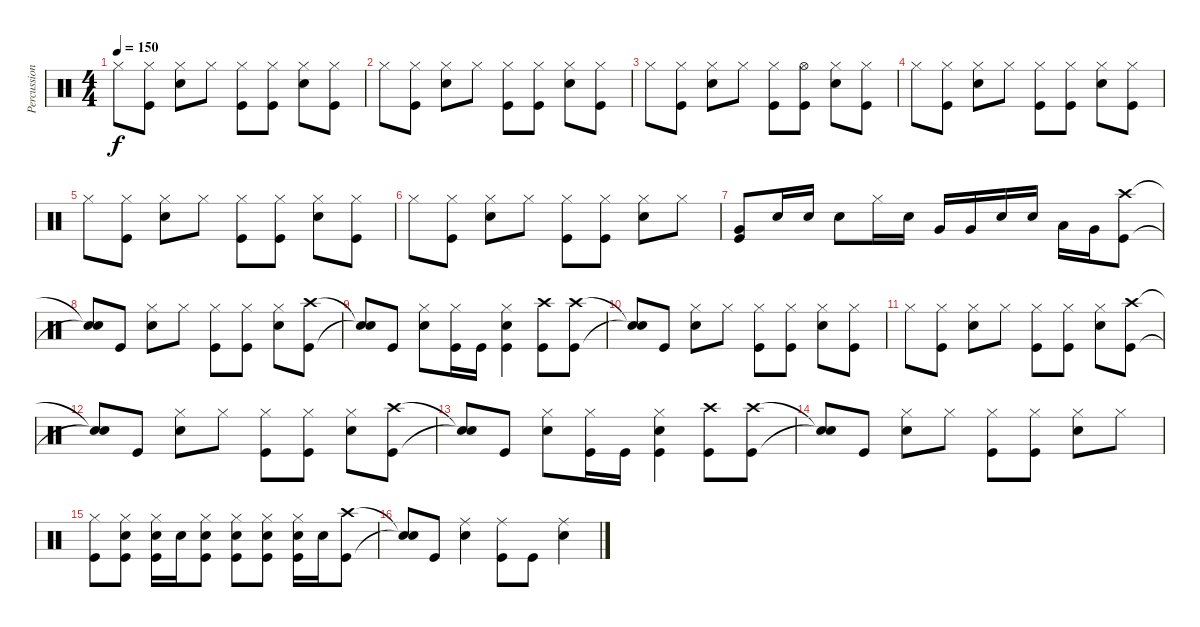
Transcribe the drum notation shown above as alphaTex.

\track ("Percussion" "Percussion") {instrument percussion}
\staff {score}
\articulation defaults
\ts (4 4)
\tempo 150
\clef neutral
\ks c "Hi-Hat (closed)".8{dy f}
("Hi-Hat (closed)" "Kick (hit)").8 ("Hi-Hat (closed)" "Electric Snare (hit)").8 "Hi-Hat (closed)".8 ("Hi-Hat (closed)" "Kick (hit)").8 ("Hi-Hat (closed)" "Kick (hit)").8 ("Hi-Hat (closed)" "Electric Snare (hit)").8 ("Hi-Hat (closed)" "Kick (hit)").8 |
"Hi-Hat (closed)".8 ("Hi-Hat (closed)" "Kick (hit)").8 ("Hi-Hat (closed)" "Electric Snare (hit)").8 "Hi-Hat (closed)".8 ("Hi-Hat (closed)" "Kick (hit)").8 ("Hi-Hat (closed)" "Kick (hit)").8 ("Hi-Hat (closed)" "Electric Snare (hit)").8 ("Hi-Hat (closed)" "Kick (hit)").8 |
"Hi-Hat (closed)".8 ("Hi-Hat (closed)" "Kick (hit)").8 ("Hi-Hat (closed)" "Electric Snare (hit)").8 "Hi-Hat (closed)".8 ("Hi-Hat (closed)" "Kick (hit)").8 ("Hi-Hat (open)" "Kick (hit)").8 ("Hi-Hat (closed)" "Electric Snare (hit)").8 ("Hi-Hat (closed)" "Kick (hit)").8 |
"Hi-Hat (closed)".8 ("Hi-Hat (closed)" "Kick (hit)").8 ("Hi-Hat (closed)" "Electric Snare (hit)").8 "Hi-Hat (closed)".8 ("Hi-Hat (closed)" "Kick (hit)").8 ("Hi-Hat (closed)" "Kick (hit)").8 ("Hi-Hat (closed)" "Electric Snare (hit)").8 ("Hi-Hat (closed)" "Kick (hit)").8 |
"Hi-Hat (closed)".8 ("Hi-Hat (closed)" "Kick (hit)").8 ("Hi-Hat (closed)" "Electric Snare (hit)").8 "Hi-Hat (closed)".8 ("Hi-Hat (closed)" "Kick (hit)").8 ("Hi-Hat (closed)" "Kick (hit)").8 ("Hi-Hat (closed)" "Electric Snare (hit)").8 ("Hi-Hat (closed)" "Kick (hit)").8 |
"Hi-Hat (closed)".8 ("Hi-Hat (closed)" "Kick (hit)").8 ("Hi-Hat (closed)" "Electric Snare (hit)").8 "Hi-Hat (closed)".8 ("Hi-Hat (closed)" "Kick (hit)").8 ("Hi-Hat (closed)" "Kick (hit)").8 ("Hi-Hat (closed)" "Electric Snare (hit)").8 "Hi-Hat (closed)".8 |
("Very Low Tom (hit)" "Kick (hit)").8 "Electric Snare (hit)".16 "Electric Snare (hit)".16 "Electric Snare (hit)".8 "Hi-Hat (closed)".16 "Electric Snare (hit)".16 "Very Low Tom (hit)".16 "Very Low Tom (hit)".16 "Electric Snare (hit)".16 "Electric Snare (hit)".16 "Low Tom (hit)".16 "Very Low Tom (hit)".16 ("Crash high (hit)" "Kick (hit)").8 |
("Snare (hit)"{t} "Snare (hit)"{t}).8 "Kick (hit)".8 ("Hi-Hat (closed)" "Electric Snare (hit)").8 "Hi-Hat (closed)".8 ("Hi-Hat (closed)" "Kick (hit)").8 ("Hi-Hat (closed)" "Kick (hit)").8 ("Hi-Hat (closed)" "Electric Snare (hit)").8 ("Crash high (hit)" "Kick (hit)").8 |
("Snare (hit)"{t} "Snare (hit)"{t}).8 "Kick (hit)".8 ("Hi-Hat (closed)" "Electric Snare (hit)").8 ("Hi-Hat (closed)" "Kick (hit)").16 "Kick (hit)".16 ("Hi-Hat (closed)" "Electric Snare (hit)" "Kick (hit)").4 ("Crash high (hit)" "Kick (hit)").8 ("Crash high (hit)" "Kick (hit)").8 |
("Snare (hit)"{t} "Snare (hit)"{t}).8 "Kick (hit)".8 ("Hi-Hat (closed)" "Electric Snare (hit)").8 "Hi-Hat (closed)".8 ("Hi-Hat (closed)" "Kick (hit)").8 ("Hi-Hat (closed)" "Kick (hit)").8 ("Hi-Hat (closed)" "Electric Snare (hit)").8 ("Hi-Hat (closed)" "Kick (hit)").8 |
"Hi-Hat (closed)".8 ("Hi-Hat (closed)" "Kick (hit)").8 ("Hi-Hat (closed)" "Electric Snare (hit)").8 "Hi-Hat (closed)".8 ("Hi-Hat (closed)" "Kick (hit)").8 ("Hi-Hat (closed)" "Kick (hit)").8 ("Hi-Hat (closed)" "Electric Snare (hit)").8 ("Crash high (hit)" "Kick (hit)").8 |
("Snare (hit)"{t} "Snare (hit)"{t}).8 "Kick (hit)".8 ("Hi-Hat (closed)" "Electric Snare (hit)").8 "Hi-Hat (closed)".8 ("Hi-Hat (closed)" "Kick (hit)").8 ("Hi-Hat (closed)" "Kick (hit)").8 ("Hi-Hat (closed)" "Electric Snare (hit)").8 ("Crash high (hit)" "Kick (hit)").8 |
("Snare (hit)"{t} "Snare (hit)"{t}).8 "Kick (hit)".8 ("Hi-Hat (closed)" "Electric Snare (hit)").8 ("Hi-Hat (closed)" "Kick (hit)").16 "Kick (hit)".16 ("Hi-Hat (closed)" "Electric Snare (hit)" "Kick (hit)").4 ("Crash high (hit)" "Kick (hit)").8 ("Crash high (hit)" "Kick (hit)").8 |
("Snare (hit)"{t} "Snare (hit)"{t}).8 "Kick (hit)".8 ("Hi-Hat (closed)" "Electric Snare (hit)").8 "Hi-Hat (closed)".8 ("Hi-Hat (closed)" "Kick (hit)").8 ("Hi-Hat (closed)" "Kick (hit)").8 ("Hi-Hat (closed)" "Electric Snare (hit)").8 "Hi-Hat (closed)".8 |
("Hi-Hat (closed)" "Kick (hit)").8 ("Electric Snare (hit)" "Hi-Hat (closed)" "Kick (hit)").8 ("Electric Snare (hit)" "Hi-Hat (closed)" "Kick (hit)").16 "Electric Snare (hit)".16 ("Electric Snare (hit)" "Hi-Hat (closed)" "Kick (hit)").8 ("Electric Snare (hit)" "Hi-Hat (closed)" "Kick (hit)").8 ("Electric Snare (hit)" "Hi-Hat (closed)" "Kick (hit)").8 ("Electric Snare (hit)" "Hi-Hat (closed)" "Kick (hit)").16 "Electric Snare (hit)".16 ("Crash high (hit)" "Kick (hit)").8 |
("Snare (hit)"{t} "Snare (hit)"{t}).8 "Kick (hit)".8 ("Ride (middle)" "Electric Snare (hit)").4 ("Ride (middle)" "Kick (hit)").8 "Kick (hit)".8 ("Ride (middle)" "Electric Snare (hit)").4
